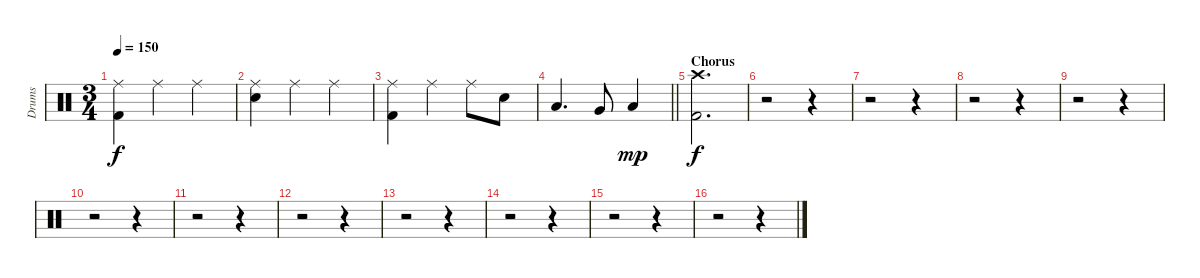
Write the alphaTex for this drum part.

\track ("Drums" "Drums") {instrument percussion}
\staff {score}
\articulation defaults
\ts (3 4)
\tempo 150
\clef neutral
\ks c
("Ride (middle)" "Kick (hit) 2").4{dy f} "Ride (middle)".4 "Ride (middle)".4 |
("Ride (middle)" "Electric Snare (hit)").4 "Ride (middle)".4 "Ride (middle)".4 |
("Ride (middle)" "Kick (hit) 2").4 "Ride (middle)".4 "Ride (middle)".8 "Electric Snare (hit)".8 |
\barLineRight lightlight "Low Tom (hit)".4{d} "Very Low Tom (hit)".8 "Low Floor Tom (hit)".4{dy mp}
|
\section ("" "Chorus")
("Crash high (hit)" "Kick (hit) 2").2{d dy f} |
r.2 r.4 |
r.2 r.4 |
r.2 r.4 |
r.2 r.4 |
r.2 r.4 |
r.2 r.4 |
r.2 r.4 |
r.2 r.4 |
r.2 r.4 |
r.2 r.4 |
r.2 r.4
